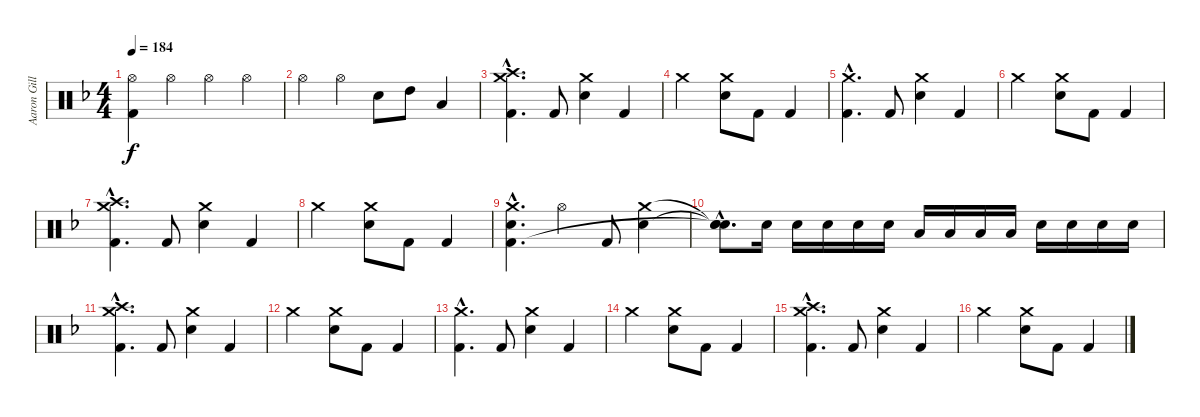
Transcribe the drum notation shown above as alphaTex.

\track ("Aaron Gillespie" "Aaron Gill") {instrument percussion}
\staff {score}
\articulation defaults
\ts (4 4)
\tempo 184
\clef neutral
\ks dminor
("Hi-Hat (open)" "Kick (hit) 2").4{dy f} "Hi-Hat (open)".4 "Hi-Hat (open)".4 "Hi-Hat (open)".4 |
"Hi-Hat (open)".4 "Hi-Hat (open)".4 "Snare (hit) 2".8 "High Tom (hit)".8 "Low Tom (hit)".4 |
("Crash medium (hit)"{hac} "Crash high (hit)"{hac} "Kick (hit) 2"{hac}).4{d} "Kick (hit) 2".8 ("Crash medium (hit)" "Snare (hit) 2").4 "Kick (hit) 2".4 |
"Crash medium (hit)".2 ("Crash medium (hit)" "Snare (hit) 2").8 "Kick (hit) 2".8 "Kick (hit) 2".4 |
("Crash medium (hit)"{hac} "Kick (hit) 2"{hac}).4{d} "Kick (hit) 2".8 ("Crash medium (hit)" "Snare (hit) 2").4 "Kick (hit) 2".4 |
"Crash medium (hit)".2 ("Crash medium (hit)" "Snare (hit) 2").8 "Kick (hit) 2".8 "Kick (hit) 2".4 |
("Crash medium (hit)"{hac} "Crash high (hit)"{hac} "Kick (hit) 2"{hac}).4{d} "Kick (hit) 2".8 ("Crash medium (hit)" "Snare (hit) 2").4 "Kick (hit) 2".4 |
"Crash medium (hit)".2 ("Crash medium (hit)" "Snare (hit) 2").8 "Kick (hit) 2".8 "Kick (hit) 2".4 |
("Crash medium (hit)"{hac} "Snare (hit) 2"{hac} "Kick (hit) 2"{hac}).4{d} "Hi-Hat (open)".4 "Kick (hit) 2".8 ("Crash medium (hit)" "Snare (hit) 2").4 |
("Snare (hit)"{hac t} "Snare (hit)"{hac t} "Snare (hit)"{hac t}).8{d} "Snare (hit) 2".16 "Snare (hit) 2".16 "Snare (hit) 2".16 "Snare (hit) 2".16 "Snare (hit) 2".16 "Low Tom (hit)".16 "Low Tom (hit)".16 "Low Tom (hit)".16 "Low Tom (hit)".16 "Snare (hit) 2".16 "Snare (hit) 2".16 "Snare (hit) 2".16 "Snare (hit) 2".16 |
("Crash medium (hit)"{hac} "Crash high (hit)"{hac} "Kick (hit) 2"{hac}).4{d} "Kick (hit) 2".8 ("Crash medium (hit)" "Snare (hit) 2").4 "Kick (hit) 2".4 |
"Crash medium (hit)".2 ("Crash medium (hit)" "Snare (hit) 2").8 "Kick (hit) 2".8 "Kick (hit) 2".4 |
("Crash medium (hit)"{hac} "Kick (hit) 2"{hac}).4{d} "Kick (hit) 2".8 ("Crash medium (hit)" "Snare (hit) 2").4 "Kick (hit) 2".4 |
"Crash medium (hit)".2 ("Crash medium (hit)" "Snare (hit) 2").8 "Kick (hit) 2".8 "Kick (hit) 2".4 |
("Crash medium (hit)"{hac} "Crash high (hit)"{hac} "Kick (hit) 2"{hac}).4{d} "Kick (hit) 2".8 ("Crash medium (hit)" "Snare (hit) 2").4 "Kick (hit) 2".4 |
"Crash medium (hit)".2 ("Crash medium (hit)" "Snare (hit) 2").8 "Kick (hit) 2".8 "Kick (hit) 2".4
